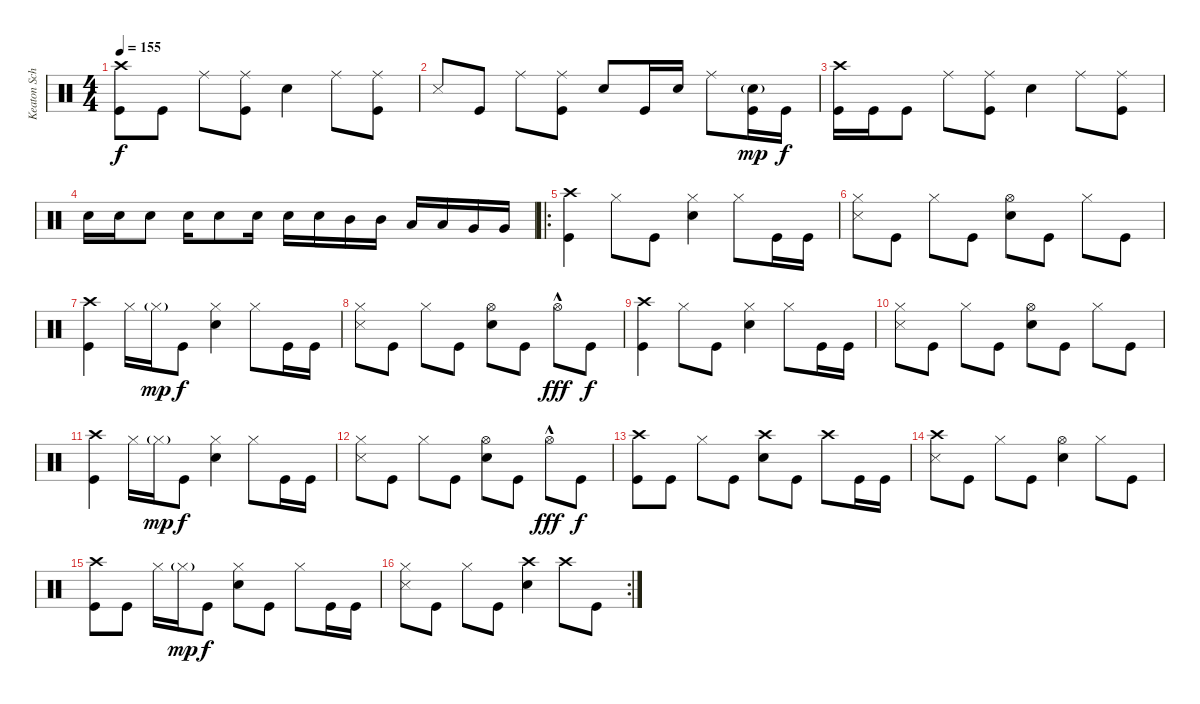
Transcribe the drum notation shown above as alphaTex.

\track ("Keaton Schluchter Drums" "Keaton Sch") {instrument percussion bank 20}
\staff {score}
\articulation defaults
\ts (4 4)
\tempo 155
\clef neutral
\ks c
("Crash high (hit)" "Kick (hit)").8{dy f} "Kick (hit)".8 "Ride (middle)".8 ("Ride (middle)" "Kick (hit)").8 "Electric Snare (hit)".4 "Ride (middle)".8 ("Ride (middle)" "Kick (hit)").8 |
"Snare (side stick) 3".8 "Kick (hit)".8 "Ride (middle)".8 ("Ride (middle)" "Kick (hit)").8 "Electric Snare (hit)".8 "Kick (hit)".16 "Electric Snare (hit)".16 "Ride (middle)".8 ("Electric Snare (hit)"{g} "Kick (hit)").16{dy mp} "Kick (hit)".16{dy f} |
("Crash high (hit)" "Kick (hit)").16 "Kick (hit)".16 "Kick (hit)".8 "Ride (middle)".8 ("Ride (middle)" "Kick (hit)").8 "Electric Snare (hit)".4 "Ride (middle)".8 ("Ride (middle)" "Kick (hit)").8 |
"Electric Snare (hit)".16 "Electric Snare (hit)".16 "Electric Snare (hit)".8 "Electric Snare (hit)".16 "Electric Snare (hit)".8 "Electric Snare (hit)".16 "Electric Snare (hit)".16 "Electric Snare (hit)".16 "Mid Tom (hit)".16 "Mid Tom (hit)".16 "Low Tom (hit)".16 "Low Tom (hit)".16 "Very Low Tom (hit)".16 "Very Low Tom (hit)".16 |
\ro
("Crash high (hit)" "Kick (hit)").4 "Hi-Hat (closed)".8 "Kick (hit)".8 ("Hi-Hat (closed)" "Electric Snare (hit)").4 "Hi-Hat (closed)".8 "Kick (hit)".16 "Kick (hit)".16 |
("Hi-Hat (closed)" "Snare (side stick) 3").8 "Kick (hit)".8 "Hi-Hat (closed)".8 "Kick (hit)".8 ("Hi-Hat (open)" "Electric Snare (hit)").8 "Kick (hit)".8 "Hi-Hat (closed)".8 "Kick (hit)".8 |
("Crash high (hit)" "Kick (hit)").4 "Hi-Hat (closed)".16 "Hi-Hat (closed)"{g}.16{dy mp} "Kick (hit)".8{dy f} ("Hi-Hat (closed)" "Electric Snare (hit)").4 "Hi-Hat (closed)".8 "Kick (hit)".16 "Kick (hit)".16 |
("Hi-Hat (closed)" "Snare (side stick) 3").8 "Kick (hit)".8 "Hi-Hat (closed)".8 "Kick (hit)".8 ("Hi-Hat (open)" "Electric Snare (hit)").8 "Kick (hit)".8 "Hi-Hat (open)"{hac}.8{dy fff} "Kick (hit)".8{dy f} |
("Crash high (hit)" "Kick (hit)").4 "Hi-Hat (closed)".8 "Kick (hit)".8 ("Hi-Hat (closed)" "Electric Snare (hit)").4 "Hi-Hat (closed)".8 "Kick (hit)".16 "Kick (hit)".16 |
("Hi-Hat (closed)" "Snare (side stick) 3").8 "Kick (hit)".8 "Hi-Hat (closed)".8 "Kick (hit)".8 ("Hi-Hat (open)" "Electric Snare (hit)").8 "Kick (hit)".8 "Hi-Hat (closed)".8 "Kick (hit)".8 |
("Crash high (hit)" "Kick (hit)").4 "Hi-Hat (closed)".16 "Hi-Hat (closed)"{g}.16{dy mp} "Kick (hit)".8{dy f} ("Hi-Hat (closed)" "Electric Snare (hit)").4 "Hi-Hat (closed)".8 "Kick (hit)".16 "Kick (hit)".16 |
("Hi-Hat (closed)" "Snare (side stick) 3").8 "Kick (hit)".8 "Hi-Hat (closed)".8 "Kick (hit)".8 ("Hi-Hat (open)" "Electric Snare (hit)").8 "Kick (hit)".8 "Hi-Hat (open)"{hac}.8{dy fff} "Kick (hit)".8{dy f} |
("Crash high (hit)" "Kick (hit)").8 "Kick (hit)".8 "Hi-Hat (closed)".8 "Kick (hit)".8 ("Crash high (hit)" "Electric Snare (hit)").8 "Kick (hit)".8 "Crash high (hit)".8 "Kick (hit)".16 "Kick (hit)".16 |
("Crash high (hit)" "Snare (side stick) 3").8 "Kick (hit)".8 "Hi-Hat (closed)".8 "Kick (hit)".8 ("Hi-Hat (open)" "Electric Snare (hit)").4 "Hi-Hat (closed)".8 "Kick (hit)".8 |
("Crash high (hit)" "Kick (hit)").8 "Kick (hit)".8 "Hi-Hat (closed)".16 "Hi-Hat (closed)"{g}.16{dy mp} "Kick (hit)".8{dy f} ("Hi-Hat (closed)" "Electric Snare (hit)").8 "Kick (hit)".8 "Hi-Hat (closed)".8 "Kick (hit)".16 "Kick (hit)".16 |
\rc 2
("Hi-Hat (closed)" "Snare (side stick) 3").8 "Kick (hit)".8 "Hi-Hat (closed)".8 "Kick (hit)".8 ("Crash high (hit)" "Electric Snare (hit)").4 "Crash high (hit)".8 "Kick (hit)".8
